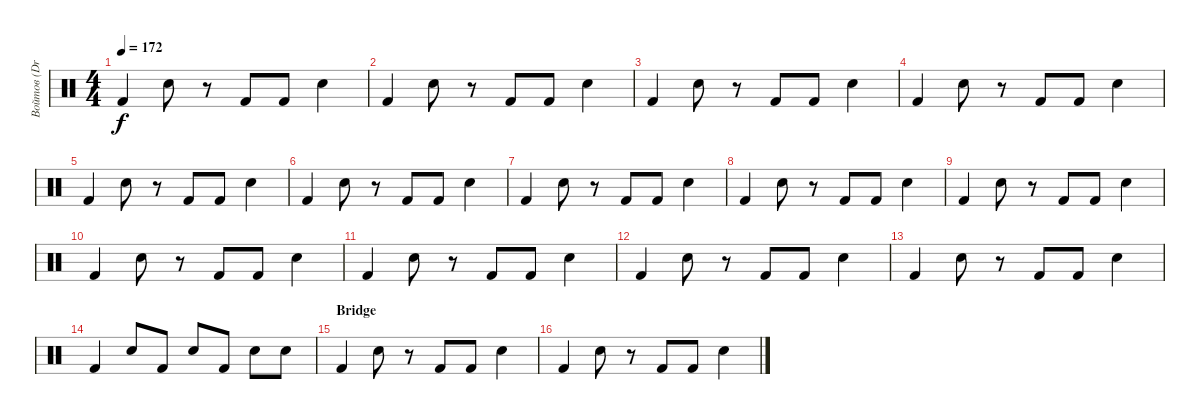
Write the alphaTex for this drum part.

\track ("Войтов (Drums)" "Войтов (Dr") {instrument percussion}
\staff {score}
\articulation defaults
\ts (4 4)
\tempo 172
\clef neutral
\ks c "Kick (hit) 2".4{dy f} "Electric Snare (hit)".8
r.8 "Kick (hit) 2".8 "Kick (hit) 2".8 "Electric Snare (hit)".4 |
"Kick (hit) 2".4 "Electric Snare (hit)".8 r.8 "Kick (hit) 2".8 "Kick (hit) 2".8 "Electric Snare (hit)".4 |
"Kick (hit) 2".4 "Electric Snare (hit)".8 r.8 "Kick (hit) 2".8 "Kick (hit) 2".8 "Electric Snare (hit)".4 |
"Kick (hit) 2".4 "Electric Snare (hit)".8 r.8 "Kick (hit) 2".8 "Kick (hit) 2".8 "Electric Snare (hit)".4 |
"Kick (hit) 2".4 "Electric Snare (hit)".8 r.8 "Kick (hit) 2".8 "Kick (hit) 2".8 "Electric Snare (hit)".4 |
"Kick (hit) 2".4 "Electric Snare (hit)".8 r.8 "Kick (hit) 2".8 "Kick (hit) 2".8 "Electric Snare (hit)".4 |
"Kick (hit) 2".4 "Electric Snare (hit)".8 r.8 "Kick (hit) 2".8 "Kick (hit) 2".8 "Electric Snare (hit)".4 |
"Kick (hit) 2".4 "Electric Snare (hit)".8 r.8 "Kick (hit) 2".8 "Kick (hit) 2".8 "Electric Snare (hit)".4 |
"Kick (hit) 2".4 "Electric Snare (hit)".8 r.8 "Kick (hit) 2".8 "Kick (hit) 2".8 "Electric Snare (hit)".4 |
"Kick (hit) 2".4 "Electric Snare (hit)".8 r.8 "Kick (hit) 2".8 "Kick (hit) 2".8 "Electric Snare (hit)".4 |
"Kick (hit) 2".4 "Electric Snare (hit)".8 r.8 "Kick (hit) 2".8 "Kick (hit) 2".8 "Electric Snare (hit)".4 |
"Kick (hit) 2".4 "Electric Snare (hit)".8 r.8 "Kick (hit) 2".8 "Kick (hit) 2".8 "Electric Snare (hit)".4 |
"Kick (hit) 2".4 "Electric Snare (hit)".8 r.8 "Kick (hit) 2".8 "Kick (hit) 2".8 "Electric Snare (hit)".4 |
"Kick (hit) 2".4 "Electric Snare (hit)".8 "Kick (hit) 2".8 "Electric Snare (hit)".8 "Kick (hit) 2".8 "Electric Snare (hit)".8 "Electric Snare (hit)".8 |
\section ("" "Bridge")
"Kick (hit) 2".4 "Electric Snare (hit)".8 r.8 "Kick (hit) 2".8 "Kick (hit) 2".8 "Electric Snare (hit)".4 |
"Kick (hit) 2".4 "Electric Snare (hit)".8 r.8 "Kick (hit) 2".8 "Kick (hit) 2".8 "Electric Snare (hit)".4
